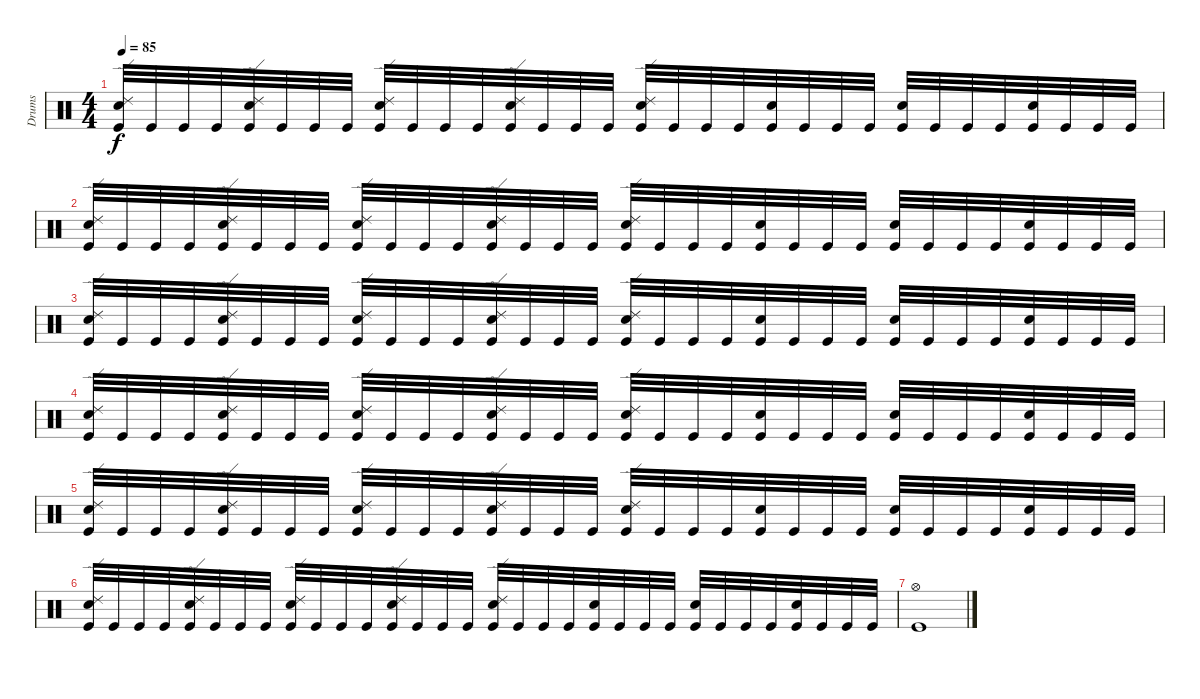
\track ("Drums" "Drums") {instrument percussion}
\staff {score}
\articulation defaults
\ts (4 4)
\tempo 85
\clef neutral
\ks c
("Ride (edge) 2" "Snare (hit) 2" "Kick (hit)").32{dy f} "Kick (hit)".32 "Kick (hit)".32 "Kick (hit)".32 ("Ride (edge) 2" "Snare (hit) 2" "Kick (hit)").32 "Kick (hit)".32 "Kick (hit)".32 "Kick (hit)".32 ("Ride (edge) 2" "Snare (hit) 2" "Kick (hit)").32 "Kick (hit)".32 "Kick (hit)".32 "Kick (hit)".32 ("Ride (edge) 2" "Snare (hit) 2" "Kick (hit)").32 "Kick (hit)".32 "Kick (hit)".32 "Kick (hit)".32 ("Ride (edge) 2" "Snare (hit) 2" "Kick (hit)").32 "Kick (hit)".32 "Kick (hit)".32 "Kick (hit)".32 ("Snare (hit) 2" "Kick (hit)").32 "Kick (hit)".32 "Kick (hit)".32 "Kick (hit)".32 ("Snare (hit) 2" "Kick (hit)").32 "Kick (hit)".32 "Kick (hit)".32 "Kick (hit)".32 ("Snare (hit) 2" "Kick (hit)").32 "Kick (hit)".32 "Kick (hit)".32 "Kick (hit)".32 |
("Ride (edge) 2" "Snare (hit) 2" "Kick (hit)").32 "Kick (hit)".32 "Kick (hit)".32 "Kick (hit)".32 ("Ride (edge) 2" "Snare (hit) 2" "Kick (hit)").32 "Kick (hit)".32 "Kick (hit)".32 "Kick (hit)".32 ("Ride (edge) 2" "Snare (hit) 2" "Kick (hit)").32 "Kick (hit)".32 "Kick (hit)".32 "Kick (hit)".32 ("Ride (edge) 2" "Snare (hit) 2" "Kick (hit)").32 "Kick (hit)".32 "Kick (hit)".32 "Kick (hit)".32 ("Ride (edge) 2" "Snare (hit) 2" "Kick (hit)").32 "Kick (hit)".32 "Kick (hit)".32 "Kick (hit)".32 ("Snare (hit) 2" "Kick (hit)").32 "Kick (hit)".32 "Kick (hit)".32 "Kick (hit)".32 ("Snare (hit) 2" "Kick (hit)").32 "Kick (hit)".32 "Kick (hit)".32 "Kick (hit)".32 ("Snare (hit) 2" "Kick (hit)").32 "Kick (hit)".32 "Kick (hit)".32 "Kick (hit)".32 |
("Ride (edge) 2" "Snare (hit) 2" "Kick (hit)").32 "Kick (hit)".32 "Kick (hit)".32 "Kick (hit)".32 ("Ride (edge) 2" "Snare (hit) 2" "Kick (hit)").32 "Kick (hit)".32 "Kick (hit)".32 "Kick (hit)".32 ("Ride (edge) 2" "Snare (hit) 2" "Kick (hit)").32 "Kick (hit)".32 "Kick (hit)".32 "Kick (hit)".32 ("Ride (edge) 2" "Snare (hit) 2" "Kick (hit)").32 "Kick (hit)".32 "Kick (hit)".32 "Kick (hit)".32 ("Ride (edge) 2" "Snare (hit) 2" "Kick (hit)").32 "Kick (hit)".32 "Kick (hit)".32 "Kick (hit)".32 ("Snare (hit) 2" "Kick (hit)").32 "Kick (hit)".32 "Kick (hit)".32 "Kick (hit)".32 ("Snare (hit) 2" "Kick (hit)").32 "Kick (hit)".32 "Kick (hit)".32 "Kick (hit)".32 ("Snare (hit) 2" "Kick (hit)").32 "Kick (hit)".32 "Kick (hit)".32 "Kick (hit)".32 |
("Ride (edge) 2" "Snare (hit) 2" "Kick (hit)").32 "Kick (hit)".32 "Kick (hit)".32 "Kick (hit)".32 ("Ride (edge) 2" "Snare (hit) 2" "Kick (hit)").32 "Kick (hit)".32 "Kick (hit)".32 "Kick (hit)".32 ("Ride (edge) 2" "Snare (hit) 2" "Kick (hit)").32 "Kick (hit)".32 "Kick (hit)".32 "Kick (hit)".32 ("Ride (edge) 2" "Snare (hit) 2" "Kick (hit)").32 "Kick (hit)".32 "Kick (hit)".32 "Kick (hit)".32 ("Ride (edge) 2" "Snare (hit) 2" "Kick (hit)").32 "Kick (hit)".32 "Kick (hit)".32 "Kick (hit)".32 ("Snare (hit) 2" "Kick (hit)").32 "Kick (hit)".32 "Kick (hit)".32 "Kick (hit)".32 ("Snare (hit) 2" "Kick (hit)").32 "Kick (hit)".32 "Kick (hit)".32 "Kick (hit)".32 ("Snare (hit) 2" "Kick (hit)").32 "Kick (hit)".32 "Kick (hit)".32 "Kick (hit)".32 |
("Ride (edge) 2" "Snare (hit) 2" "Kick (hit)").32 "Kick (hit)".32 "Kick (hit)".32 "Kick (hit)".32 ("Ride (edge) 2" "Snare (hit) 2" "Kick (hit)").32 "Kick (hit)".32 "Kick (hit)".32 "Kick (hit)".32 ("Ride (edge) 2" "Snare (hit) 2" "Kick (hit)").32 "Kick (hit)".32 "Kick (hit)".32 "Kick (hit)".32 ("Ride (edge) 2" "Snare (hit) 2" "Kick (hit)").32 "Kick (hit)".32 "Kick (hit)".32 "Kick (hit)".32 ("Ride (edge) 2" "Snare (hit) 2" "Kick (hit)").32 "Kick (hit)".32 "Kick (hit)".32 "Kick (hit)".32 ("Snare (hit) 2" "Kick (hit)").32 "Kick (hit)".32 "Kick (hit)".32 "Kick (hit)".32 ("Snare (hit) 2" "Kick (hit)").32 "Kick (hit)".32 "Kick (hit)".32 "Kick (hit)".32 ("Snare (hit) 2" "Kick (hit)").32 "Kick (hit)".32 "Kick (hit)".32 "Kick (hit)".32 |
("Ride (edge) 2" "Snare (hit) 2" "Kick (hit)").32 "Kick (hit)".32 "Kick (hit)".32 "Kick (hit)".32 ("Ride (edge) 2" "Snare (hit) 2" "Kick (hit)").32 "Kick (hit)".32 "Kick (hit)".32 "Kick (hit)".32 ("Ride (edge) 2" "Snare (hit) 2" "Kick (hit)").32 "Kick (hit)".32 "Kick (hit)".32 "Kick (hit)".32 ("Ride (edge) 2" "Snare (hit) 2" "Kick (hit)").32 "Kick (hit)".32 "Kick (hit)".32 "Kick (hit)".32 ("Ride (edge) 2" "Snare (hit) 2" "Kick (hit)").32 "Kick (hit)".32 "Kick (hit)".32 "Kick (hit)".32 ("Snare (hit) 2" "Kick (hit)").32 "Kick (hit)".32 "Kick (hit)".32 "Kick (hit)".32 ("Snare (hit) 2" "Kick (hit)").32 "Kick (hit)".32 "Kick (hit)".32 "Kick (hit)".32 ("Snare (hit) 2" "Kick (hit)").32 "Kick (hit)".32 "Kick (hit)".32 "Kick (hit)".32 |
("Hi-Hat (open)" "Kick (hit)").1
